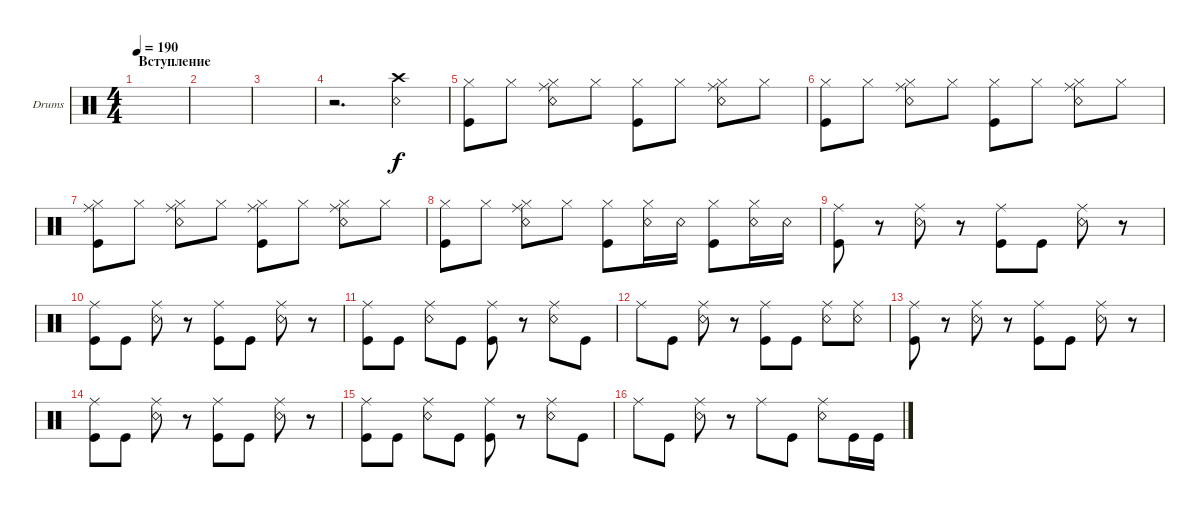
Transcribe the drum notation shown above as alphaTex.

\defaultSystemsLayout 4
\bracketExtendMode groupsimilarinstruments
\firstSystemTrackNameOrientation horizontal
\otherSystemsTrackNameOrientation horizontal
\track ("Drumkit" "Drums") {instrument percussion}
\staff {score}
\articulation defaults
\ts (4 4)
\section ("" "Вступление")
\tempo 190
\clef neutral
\ks c
|
|
|
r.2{d} ("Snare (rim shot)" "Crash high (hit)").4 |
("Hi-Hat (closed)" "Kick (hit)").8 "Hi-Hat (closed)".8 ("Hi-Hat (closed)" "Snare (rim shot)" "Ride (middle)").8 "Hi-Hat (closed)".8 ("Hi-Hat (closed)" "Kick (hit)").8 "Hi-Hat (closed)".8 ("Hi-Hat (closed)" "Snare (rim shot)" "Ride (middle)").8 "Hi-Hat (closed)".8 |
("Hi-Hat (closed)" "Kick (hit)").8 "Hi-Hat (closed)".8 ("Hi-Hat (closed)" "Snare (rim shot)" "Ride (middle)").8 "Hi-Hat (closed)".8 ("Hi-Hat (closed)" "Kick (hit)").8 "Hi-Hat (closed)".8 ("Hi-Hat (closed)" "Snare (rim shot)" "Ride (middle)").8 "Hi-Hat (closed)".8 |
("Hi-Hat (closed)" "Kick (hit)" "Ride (middle)").8 "Hi-Hat (closed)".8 ("Hi-Hat (closed)" "Snare (rim shot)" "Ride (middle)").8 "Hi-Hat (closed)".8 ("Hi-Hat (closed)" "Kick (hit)" "Ride (middle)").8 "Hi-Hat (closed)".8 ("Hi-Hat (closed)" "Snare (rim shot)" "Ride (middle)").8 "Hi-Hat (closed)".8 |
("Hi-Hat (closed)" "Kick (hit)").8 "Hi-Hat (closed)".8 ("Hi-Hat (closed)" "Snare (rim shot)" "Ride (middle)").8 "Hi-Hat (closed)".8 ("Hi-Hat (closed)" "Kick (hit)").8 ("Hi-Hat (closed)" "Snare (rim shot)").16 "Snare (rim shot)".16 ("Hi-Hat (closed)" "Kick (hit)").8 ("Hi-Hat (closed)" "Snare (rim shot)").16 "Snare (rim shot)".16 |
("Kick (hit)" "Ride (middle)").8 r.8 ("Snare (rim shot)" "Ride (middle)").8 r.8 ("Kick (hit)" "Ride (middle)").8 "Kick (hit)".8 ("Snare (rim shot)" "Ride (middle)").8 r.8 |
("Kick (hit)" "Ride (middle)").8 "Kick (hit)".8 ("Snare (rim shot)" "Ride (middle)").8 r.8 ("Kick (hit)" "Ride (middle)").8 "Kick (hit)".8 ("Snare (rim shot)" "Ride (middle)").8 r.8 |
("Kick (hit)" "Ride (middle)").8 "Kick (hit)".8 ("Snare (rim shot)" "Ride (middle)").8 "Kick (hit)".8 ("Kick (hit)" "Ride (middle)").8 r.8 ("Snare (rim shot)" "Ride (middle)").8 "Kick (hit)".8 |
"Ride (middle)".8 "Kick (hit)".8 ("Snare (rim shot)" "Ride (middle)").8 r.8 ("Kick (hit)" "Ride (middle)").8 "Kick (hit)".8 ("Snare (rim shot)" "Ride (middle)").8 ("Snare (rim shot)" "Ride (middle)").8 |
("Kick (hit)" "Ride (middle)").8 r.8 ("Snare (rim shot)" "Ride (middle)").8 r.8 ("Kick (hit)" "Ride (middle)").8 "Kick (hit)".8 ("Snare (rim shot)" "Ride (middle)").8 r.8 |
("Kick (hit)" "Ride (middle)").8 "Kick (hit)".8 ("Snare (rim shot)" "Ride (middle)").8 r.8 ("Kick (hit)" "Ride (middle)").8 "Kick (hit)".8 ("Snare (rim shot)" "Ride (middle)").8 r.8 |
("Kick (hit)" "Ride (middle)").8 "Kick (hit)".8 ("Snare (rim shot)" "Ride (middle)").8 "Kick (hit)".8 ("Kick (hit)" "Ride (middle)").8 r.8 ("Snare (rim shot)" "Ride (middle)").8 "Kick (hit)".8 |
"Ride (middle)".8 "Kick (hit)".8 ("Snare (rim shot)" "Ride (middle)").8 r.8 "Ride (middle)".8 "Kick (hit)".8 ("Snare (rim shot)" "Ride (middle)").8 "Kick (hit)".16 "Kick (hit)".16
